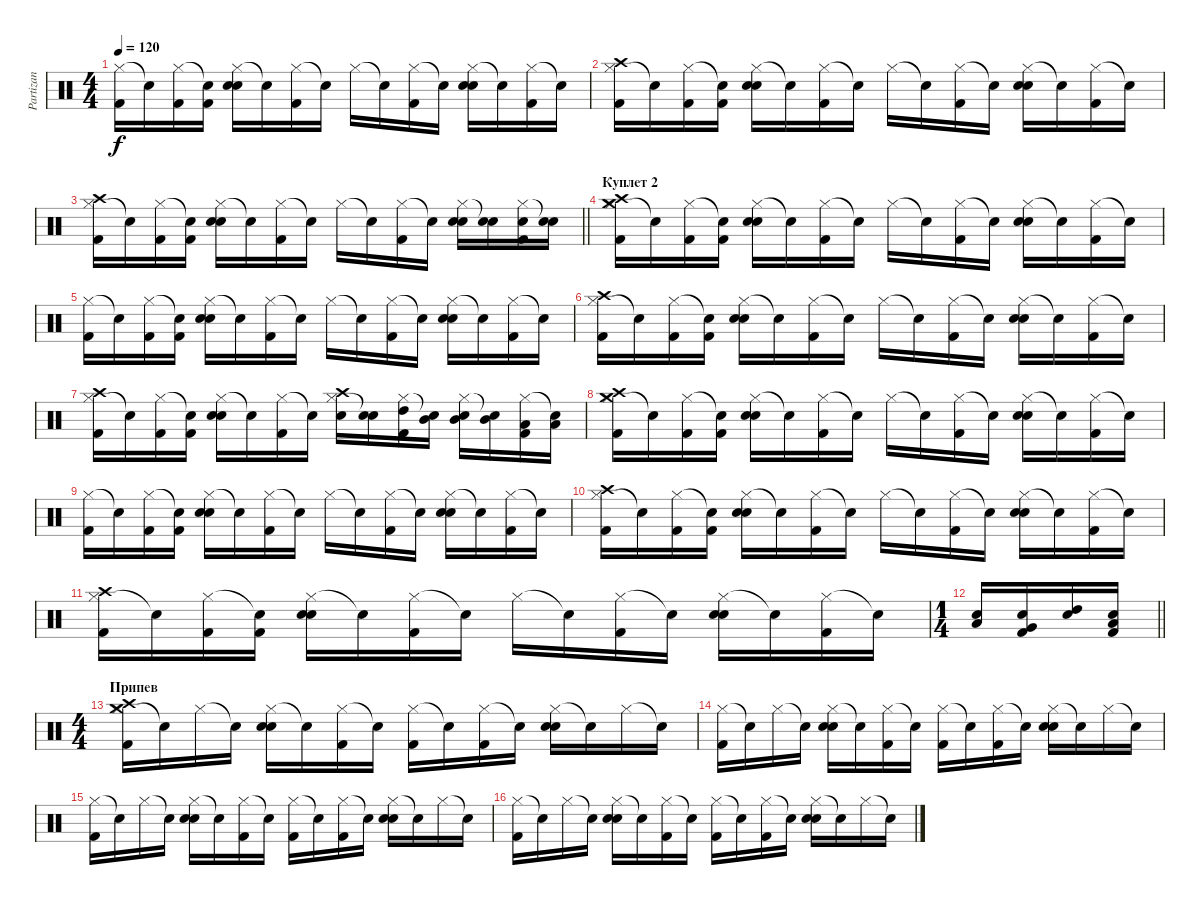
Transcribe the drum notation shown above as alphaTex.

\track ("Partizan" "Partizan") {instrument percussion}
\staff {score}
\articulation defaults
\ts (4 4)
\tempo 120
\clef neutral
\ks c
("Hi-Hat (closed)" "Kick (hit) 2").16{dy f} "Snare (hit)"{t}.16 ("Hi-Hat (closed)" "Kick (hit) 2").16 ("Snare (hit)"{t} "Kick (hit) 2").16 ("Hi-Hat (closed)" "Electric Snare (hit)" "Snare (hit) 2").16 "Snare (hit)"{t}.16 ("Hi-Hat (closed)" "Kick (hit) 2").16 "Snare (hit)"{t}.16 "Hi-Hat (closed)".16 "Snare (hit)"{t}.16 ("Hi-Hat (closed)" "Kick (hit) 2").16 "Snare (hit)"{t}.16 ("Hi-Hat (closed)" "Electric Snare (hit)" "Snare (hit) 2").16 "Snare (hit)"{t}.16 ("Hi-Hat (closed)" "Kick (hit) 2").16 "Snare (hit)"{t}.16 |
("Hi-Hat (closed)" "Crash high (hit)" "Kick (hit) 2").16 "Snare (hit)"{t}.16 ("Hi-Hat (closed)" "Kick (hit) 2").16 ("Snare (hit)"{t} "Kick (hit) 2").16 ("Hi-Hat (closed)" "Electric Snare (hit)" "Snare (hit) 2").16 "Snare (hit)"{t}.16 ("Hi-Hat (closed)" "Kick (hit) 2").16 "Snare (hit)"{t}.16 "Hi-Hat (closed)".16 "Snare (hit)"{t}.16 ("Hi-Hat (closed)" "Kick (hit) 2").16 "Snare (hit)"{t}.16 ("Hi-Hat (closed)" "Electric Snare (hit)" "Snare (hit) 2").16 "Snare (hit)"{t}.16 ("Hi-Hat (closed)" "Kick (hit) 2").16 "Snare (hit)"{t}.16 |
\barLineRight lightlight
("Hi-Hat (closed)" "Crash high (hit)" "Kick (hit) 2").16 "Snare (hit)"{t}.16 ("Hi-Hat (closed)" "Kick (hit) 2").16 ("Snare (hit)"{t} "Kick (hit) 2").16 ("Hi-Hat (closed)" "Electric Snare (hit)" "Snare (hit) 2").16 "Snare (hit)"{t}.16 ("Hi-Hat (closed)" "Kick (hit) 2").16 "Snare (hit)"{t}.16 "Hi-Hat (closed)".16 "Snare (hit)"{t}.16 ("Hi-Hat (closed)" "Kick (hit) 2").16 "Snare (hit)"{t}.16 ("Hi-Hat (closed)" "Electric Snare (hit)" "Snare (hit) 2").16 ("Snare (hit)"{t} "Electric Snare (hit)").16 ("Hi-Hat (closed)" "Electric Snare (hit)" "Kick (hit) 2").16 ("Snare (hit)"{t} "Electric Snare (hit)").16 |
\section ("" "Куплет 2")
("Hi-Hat (closed)" "Crash high (hit)" "Crash medium (hit)" "Kick (hit) 2").16 "Snare (hit)"{t}.16 ("Hi-Hat (closed)" "Kick (hit) 2").16 ("Snare (hit)"{t} "Kick (hit) 2").16 ("Hi-Hat (closed)" "Electric Snare (hit)" "Snare (hit) 2").16 "Snare (hit)"{t}.16 ("Hi-Hat (closed)" "Kick (hit) 2").16 "Snare (hit)"{t}.16 "Hi-Hat (closed)".16 "Snare (hit)"{t}.16 ("Hi-Hat (closed)" "Kick (hit) 2").16 "Snare (hit)"{t}.16 ("Hi-Hat (closed)" "Electric Snare (hit)" "Snare (hit) 2").16 "Snare (hit)"{t}.16 ("Hi-Hat (closed)" "Kick (hit) 2").16 "Snare (hit)"{t}.16 |
("Hi-Hat (closed)" "Kick (hit) 2").16 "Snare (hit)"{t}.16 ("Hi-Hat (closed)" "Kick (hit) 2").16 ("Snare (hit)"{t} "Kick (hit) 2").16 ("Hi-Hat (closed)" "Electric Snare (hit)" "Snare (hit) 2").16 "Snare (hit)"{t}.16 ("Hi-Hat (closed)" "Kick (hit) 2").16 "Snare (hit)"{t}.16 "Hi-Hat (closed)".16 "Snare (hit)"{t}.16 ("Hi-Hat (closed)" "Kick (hit) 2").16 "Snare (hit)"{t}.16 ("Hi-Hat (closed)" "Electric Snare (hit)" "Snare (hit) 2").16 "Snare (hit)"{t}.16 ("Hi-Hat (closed)" "Kick (hit) 2").16 "Snare (hit)"{t}.16 |
("Hi-Hat (closed)" "Crash high (hit)" "Kick (hit) 2").16 "Snare (hit)"{t}.16 ("Hi-Hat (closed)" "Kick (hit) 2").16 ("Snare (hit)"{t} "Kick (hit) 2").16 ("Hi-Hat (closed)" "Electric Snare (hit)" "Snare (hit) 2").16 "Snare (hit)"{t}.16 ("Hi-Hat (closed)" "Kick (hit) 2").16 "Snare (hit)"{t}.16 "Hi-Hat (closed)".16 "Snare (hit)"{t}.16 ("Hi-Hat (closed)" "Kick (hit) 2").16 "Snare (hit)"{t}.16 ("Hi-Hat (closed)" "Electric Snare (hit)" "Snare (hit) 2").16 "Snare (hit)"{t}.16 ("Hi-Hat (closed)" "Kick (hit) 2").16 "Snare (hit)"{t}.16 |
("Hi-Hat (closed)" "Crash high (hit)" "Kick (hit) 2").16 "Snare (hit)"{t}.16 ("Hi-Hat (closed)" "Kick (hit) 2").16 ("Snare (hit)"{t} "Kick (hit) 2").16 ("Hi-Hat (closed)" "Electric Snare (hit)" "Snare (hit) 2").16 "Snare (hit)"{t}.16 ("Hi-Hat (closed)" "Kick (hit) 2").16 "Snare (hit)"{t}.16 ("Hi-Hat (closed)" "Crash high (hit)" "Electric Snare (hit)").16 ("Snare (hit)"{t} "Electric Snare (hit)").16 ("Hi-Hat (closed)" "High Tom (hit)" "Kick (hit) 2").16 ("Snare (hit)"{t} "Mid Tom (hit)").16 ("Hi-Hat (closed)" "Electric Snare (hit)" "Mid Tom (hit)").16 ("Snare (hit)"{t} "Mid Tom (hit)").16 ("Hi-Hat (closed)" "Low Tom (hit)" "Kick (hit) 2").16 ("Snare (hit)"{t} "Low Tom (hit)").16 |
("Hi-Hat (closed)" "Crash medium (hit)" "Crash high (hit)" "Kick (hit) 2").16 "Snare (hit)"{t}.16 ("Hi-Hat (closed)" "Kick (hit) 2").16 ("Snare (hit)"{t} "Kick (hit) 2").16 ("Hi-Hat (closed)" "Electric Snare (hit)" "Snare (hit) 2").16 "Snare (hit)"{t}.16 ("Hi-Hat (closed)" "Kick (hit) 2").16 "Snare (hit)"{t}.16 "Hi-Hat (closed)".16 "Snare (hit)"{t}.16 ("Hi-Hat (closed)" "Kick (hit) 2").16 "Snare (hit)"{t}.16 ("Hi-Hat (closed)" "Electric Snare (hit)" "Snare (hit) 2").16 "Snare (hit)"{t}.16 ("Hi-Hat (closed)" "Kick (hit) 2").16 "Snare (hit)"{t}.16 |
("Hi-Hat (closed)" "Kick (hit) 2").16 "Snare (hit)"{t}.16 ("Hi-Hat (closed)" "Kick (hit) 2").16 ("Snare (hit)"{t} "Kick (hit) 2").16 ("Hi-Hat (closed)" "Electric Snare (hit)" "Snare (hit) 2").16 "Snare (hit)"{t}.16 ("Hi-Hat (closed)" "Kick (hit) 2").16 "Snare (hit)"{t}.16 "Hi-Hat (closed)".16 "Snare (hit)"{t}.16 ("Hi-Hat (closed)" "Kick (hit) 2").16 "Snare (hit)"{t}.16 ("Hi-Hat (closed)" "Electric Snare (hit)" "Snare (hit) 2").16 "Snare (hit)"{t}.16 ("Hi-Hat (closed)" "Kick (hit) 2").16 "Snare (hit)"{t}.16 |
("Hi-Hat (closed)" "Crash high (hit)" "Kick (hit) 2").16 "Snare (hit)"{t}.16 ("Hi-Hat (closed)" "Kick (hit) 2").16 ("Snare (hit)"{t} "Kick (hit) 2").16 ("Hi-Hat (closed)" "Electric Snare (hit)" "Snare (hit) 2").16 "Snare (hit)"{t}.16 ("Hi-Hat (closed)" "Kick (hit) 2").16 "Snare (hit)"{t}.16 "Hi-Hat (closed)".16 "Snare (hit)"{t}.16 ("Hi-Hat (closed)" "Kick (hit) 2").16 "Snare (hit)"{t}.16 ("Hi-Hat (closed)" "Electric Snare (hit)" "Snare (hit) 2").16 "Snare (hit)"{t}.16 ("Hi-Hat (closed)" "Kick (hit) 2").16 "Snare (hit)"{t}.16 |
("Hi-Hat (closed)" "Crash high (hit)" "Kick (hit) 2").16 "Snare (hit)"{t}.16 ("Hi-Hat (closed)" "Kick (hit) 2").16 ("Snare (hit)"{t} "Kick (hit) 2").16 ("Hi-Hat (closed)" "Electric Snare (hit)" "Snare (hit) 2").16 "Snare (hit)"{t}.16 ("Hi-Hat (closed)" "Kick (hit) 2").16 "Snare (hit)"{t}.16 "Hi-Hat (closed)".16 "Snare (hit)"{t}.16 ("Hi-Hat (closed)" "Kick (hit) 2").16 "Snare (hit)"{t}.16 ("Hi-Hat (closed)" "Electric Snare (hit)" "Snare (hit) 2").16 "Snare (hit)"{t}.16 ("Hi-Hat (closed)" "Kick (hit) 2").16 "Snare (hit)"{t}.16 |
\ts (1 4)
\barLineRight lightlight
("Low Tom (hit)" "Electric Snare (hit)").16 ("Very Low Tom (hit)" "Electric Snare (hit)" "Kick (hit) 2").16 ("High Tom (hit)" "Electric Snare (hit)").16 ("Low Floor Tom (hit)" "Electric Snare (hit)" "Kick (hit) 2").16 |
\ts (4 4)
\section ("" "Припев")
("Hi-Hat (closed)" "Crash high (hit)" "Crash medium (hit)" "Kick (hit) 2").16 "Snare (hit)"{t}.16 "Hi-Hat (closed)".16 "Snare (hit)"{t}.16 ("Hi-Hat (closed)" "Electric Snare (hit)" "Snare (hit) 2").16 "Snare (hit)"{t}.16 ("Hi-Hat (closed)" "Kick (hit) 2").16 "Snare (hit)"{t}.16 ("Hi-Hat (closed)" "Kick (hit) 2").16 "Snare (hit)"{t}.16 ("Hi-Hat (closed)" "Kick (hit) 2").16 "Snare (hit)"{t}.16 ("Hi-Hat (closed)" "Electric Snare (hit)" "Snare (hit) 2").16 "Snare (hit)"{t}.16 "Hi-Hat (closed)".16 "Snare (hit)"{t}.16 |
("Hi-Hat (closed)" "Kick (hit) 2").16 "Snare (hit)"{t}.16 "Hi-Hat (closed)".16 "Snare (hit)"{t}.16 ("Hi-Hat (closed)" "Electric Snare (hit)" "Snare (hit) 2").16 "Snare (hit)"{t}.16 ("Hi-Hat (closed)" "Kick (hit) 2").16 "Snare (hit)"{t}.16 ("Hi-Hat (closed)" "Kick (hit) 2").16 "Snare (hit)"{t}.16 ("Hi-Hat (closed)" "Kick (hit) 2").16 "Snare (hit)"{t}.16 ("Hi-Hat (closed)" "Electric Snare (hit)" "Snare (hit) 2").16 "Snare (hit)"{t}.16 "Hi-Hat (closed)".16 "Snare (hit)"{t}.16 |
("Hi-Hat (closed)" "Kick (hit) 2").16 "Snare (hit)"{t}.16 "Hi-Hat (closed)".16 "Snare (hit)"{t}.16 ("Hi-Hat (closed)" "Electric Snare (hit)" "Snare (hit) 2").16 "Snare (hit)"{t}.16 ("Hi-Hat (closed)" "Kick (hit) 2").16 "Snare (hit)"{t}.16 ("Hi-Hat (closed)" "Kick (hit) 2").16 "Snare (hit)"{t}.16 ("Hi-Hat (closed)" "Kick (hit) 2").16 "Snare (hit)"{t}.16 ("Hi-Hat (closed)" "Electric Snare (hit)" "Snare (hit) 2").16 "Snare (hit)"{t}.16 "Hi-Hat (closed)".16 "Snare (hit)"{t}.16 |
("Hi-Hat (closed)" "Kick (hit) 2").16 "Snare (hit)"{t}.16 "Hi-Hat (closed)".16 "Snare (hit)"{t}.16 ("Hi-Hat (closed)" "Electric Snare (hit)" "Snare (hit) 2").16 "Snare (hit)"{t}.16 ("Hi-Hat (closed)" "Kick (hit) 2").16 "Snare (hit)"{t}.16 ("Hi-Hat (closed)" "Kick (hit) 2").16 "Snare (hit)"{t}.16 ("Hi-Hat (closed)" "Kick (hit) 2").16 "Snare (hit)"{t}.16 ("Hi-Hat (closed)" "Electric Snare (hit)" "Snare (hit) 2").16 "Snare (hit)"{t}.16 "Hi-Hat (closed)".16 "Snare (hit)"{t}.16
